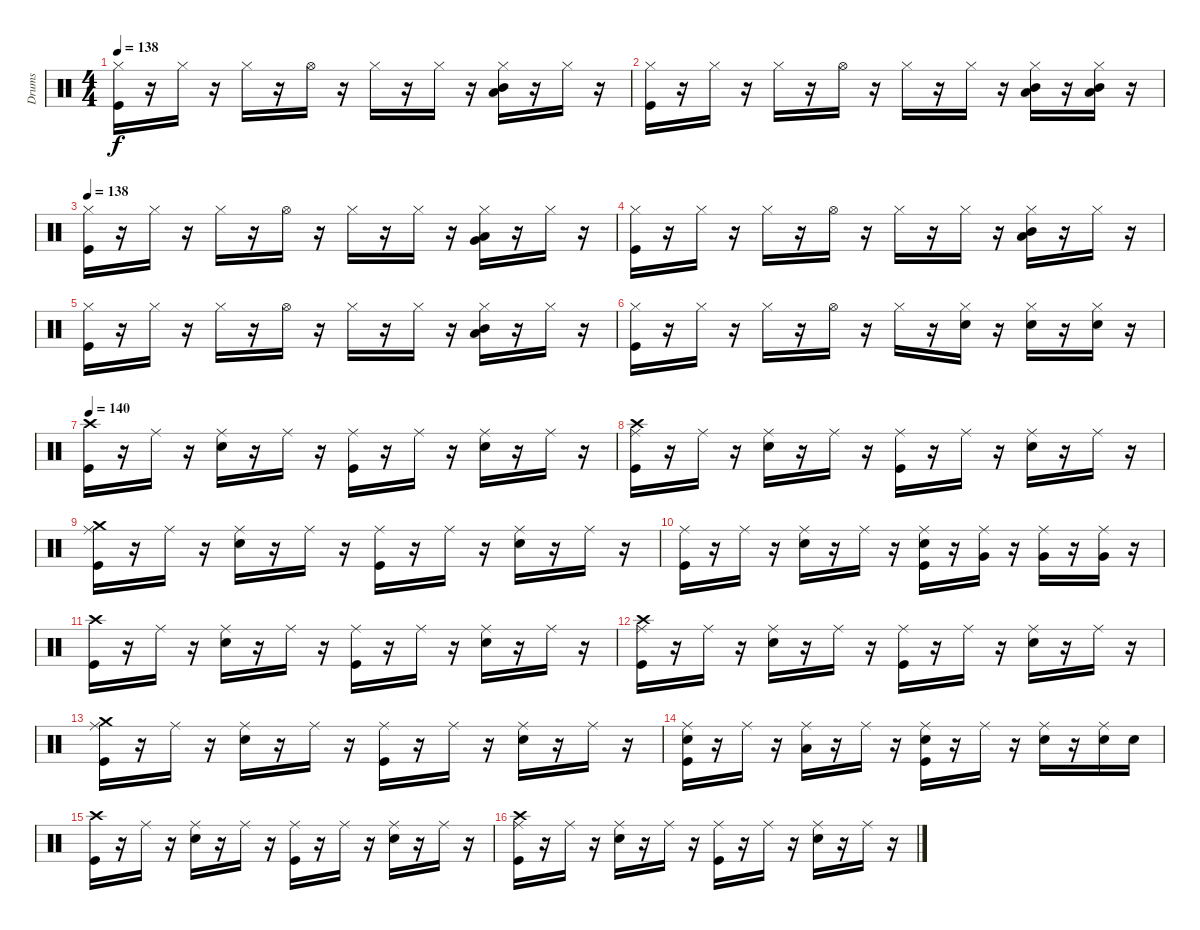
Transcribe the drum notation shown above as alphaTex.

\track ("Drums" "Drums") {instrument percussion}
\staff {score}
\articulation defaults
\ts (4 4)
\tempo 138
\clef neutral
\ks c
("Hi-Hat (closed)" "Kick (hit)").16{dy f} r.16 "Hi-Hat (closed)".16 r.16 "Hi-Hat (closed)".16 r.16 "Hi-Hat (open)".16 r.16 "Hi-Hat (closed)".16 r.16 "Hi-Hat (closed)".16 r.16 ("Low Tom (hit)" "Mid Tom (hit)" "Hi-Hat (closed)").16 r.16 "Hi-Hat (closed)".16 r.16 |
("Kick (hit)" "Hi-Hat (closed)").16 r.16 "Hi-Hat (closed)".16 r.16 "Hi-Hat (closed)".16 r.16 "Hi-Hat (open)".16 r.16 "Hi-Hat (closed)".16 r.16 "Hi-Hat (closed)".16 r.16 ("Mid Tom (hit)" "Low Tom (hit)" "Hi-Hat (closed)").16 r.16 ("Low Tom (hit)" "Mid Tom (hit)" "Hi-Hat (closed)").16 r.16 |
\tempo 138
("Kick (hit)" "Hi-Hat (closed)").16 r.16 "Hi-Hat (closed)".16 r.16 "Hi-Hat (closed)".16 r.16 "Hi-Hat (open)".16 r.16 "Hi-Hat (closed)".16 r.16 "Hi-Hat (closed)".16 r.16 ("Low Tom (hit)" "Very Low Tom (hit)" "Hi-Hat (closed)").16 r.16 "Hi-Hat (closed)".16 r.16 |
("Hi-Hat (closed)" "Kick (hit)").16 r.16 "Hi-Hat (closed)".16 r.16 "Hi-Hat (closed)".16 r.16 "Hi-Hat (open)".16 r.16 "Hi-Hat (closed)".16 r.16 "Hi-Hat (closed)".16 r.16 ("Low Tom (hit)" "Mid Tom (hit)" "Hi-Hat (closed)").16 r.16 "Hi-Hat (closed)".16 r.16 |
("Kick (hit)" "Hi-Hat (closed)").16 r.16 "Hi-Hat (closed)".16 r.16 "Hi-Hat (closed)".16 r.16 "Hi-Hat (open)".16 r.16 "Hi-Hat (closed)".16 r.16 "Hi-Hat (closed)".16 r.16 ("Mid Tom (hit)" "Low Tom (hit)" "Hi-Hat (closed)").16 r.16 "Hi-Hat (closed)".16 r.16 |
("Hi-Hat (closed)" "Kick (hit)").16 r.16 "Hi-Hat (closed)".16 r.16 "Hi-Hat (closed)".16 r.16 "Hi-Hat (open)".16 r.16 "Hi-Hat (closed)".16 r.16 ("Snare (hit) 2" "Hi-Hat (closed)").16 r.16 ("Snare (hit) 2" "Hi-Hat (closed)").16 r.16 ("Snare (hit) 2" "Hi-Hat (closed)").16 r.16 |
\tempo 140
("Crash high (hit)" "Kick (hit)").16 r.16 "Ride (middle)".16 r.16 ("Ride (middle)" "Snare (hit) 2").16 r.16 "Ride (middle)".16 r.16 ("Kick (hit)" "Ride (middle)").16 r.16 "Ride (middle)".16 r.16 ("Ride (middle)" "Snare (hit) 2").16 r.16 "Ride (middle)".16 r.16 |
("Crash high (hit)" "Kick (hit)" "Ride (middle)").16 r.16 "Ride (middle)".16 r.16 ("Snare (hit) 2" "Ride (middle)").16 r.16 "Ride (middle)".16 r.16 ("Kick (hit)" "Ride (middle)").16 r.16 "Ride (middle)".16 r.16 ("Snare (hit) 2" "Ride (middle)").16 r.16 "Ride (middle)".16 r.16 |
("Crash medium (hit)" "Kick (hit)" "Ride (middle)").16 r.16 "Ride (middle)".16 r.16 ("Snare (hit) 2" "Ride (middle)").16 r.16 "Ride (middle)".16 r.16 ("Kick (hit)" "Ride (middle)").16 r.16 "Ride (middle)".16 r.16 ("Snare (hit) 2" "Ride (middle)").16 r.16 "Ride (middle)".16 r.16 |
("Ride (middle)" "Kick (hit)").16 r.16 "Ride (middle)".16 r.16 ("Snare (hit) 2" "Ride (middle)").16 r.16 "Ride (middle)".16 r.16 ("Kick (hit)" "Ride (middle)" "Snare (hit) 2").16 r.16 ("Ride (middle)" "Very Low Tom (hit)").16 r.16 ("Ride (middle)" "Very Low Tom (hit)").16 r.16 ("Ride (middle)" "Very Low Tom (hit)").16 r.16 |
("Crash high (hit)" "Kick (hit)").16 r.16 "Ride (middle)".16 r.16 ("Ride (middle)" "Snare (hit) 2").16 r.16 "Ride (middle)".16 r.16 ("Kick (hit)" "Ride (middle)").16 r.16 "Ride (middle)".16 r.16 ("Ride (middle)" "Snare (hit) 2").16 r.16 "Ride (middle)".16 r.16 |
("Kick (hit)" "Ride (middle)" "Crash high (hit)").16 r.16 "Ride (middle)".16 r.16 ("Ride (middle)" "Snare (hit) 2").16 r.16 "Ride (middle)".16 r.16 ("Ride (middle)" "Kick (hit)").16 r.16 "Ride (middle)".16 r.16 ("Ride (middle)" "Snare (hit) 2").16 r.16 "Ride (middle)".16 r.16 |
("Kick (hit)" "Crash medium (hit)" "Ride (middle)").16 r.16 "Ride (middle)".16 r.16 ("Snare (hit) 2" "Ride (middle)").16 r.16 "Ride (middle)".16 r.16 ("Kick (hit)" "Ride (middle)").16 r.16 "Ride (middle)".16 r.16 ("Ride (middle)" "Snare (hit) 2").16 r.16 "Ride (middle)".16 r.16 |
("Snare (hit) 2" "Kick (hit)" "Ride (middle)").16 r.16 "Ride (middle)".16 r.16 ("Ride (middle)" "Low Floor Tom (hit)").16 r.16 "Ride (middle)".16 r.16 ("Kick (hit)" "Snare (hit) 2" "Ride (middle)").16 r.16 "Ride (middle)".16 r.16 ("Ride (middle)" "Snare (hit) 2").16 r.16 ("Snare (hit) 2" "Ride (middle)").16 "Snare (hit) 2".16 |
("Kick (hit)" "Crash high (hit)").16 r.16 "Ride (middle)".16 r.16 ("Snare (hit) 2" "Ride (middle)").16 r.16 "Ride (middle)".16 r.16 ("Kick (hit)" "Ride (middle)").16 r.16 "Ride (middle)".16 r.16 ("Ride (middle)" "Snare (hit) 2").16 r.16 "Ride (middle)".16 r.16 |
("Crash high (hit)" "Ride (middle)" "Kick (hit)").16 r.16 "Ride (middle)".16 r.16 ("Ride (middle)" "Snare (hit) 2").16 r.16 "Ride (middle)".16 r.16 ("Ride (middle)" "Kick (hit)").16 r.16 "Ride (middle)".16 r.16 ("Ride (middle)" "Snare (hit) 2").16 r.16 "Ride (middle)".16 r.16
